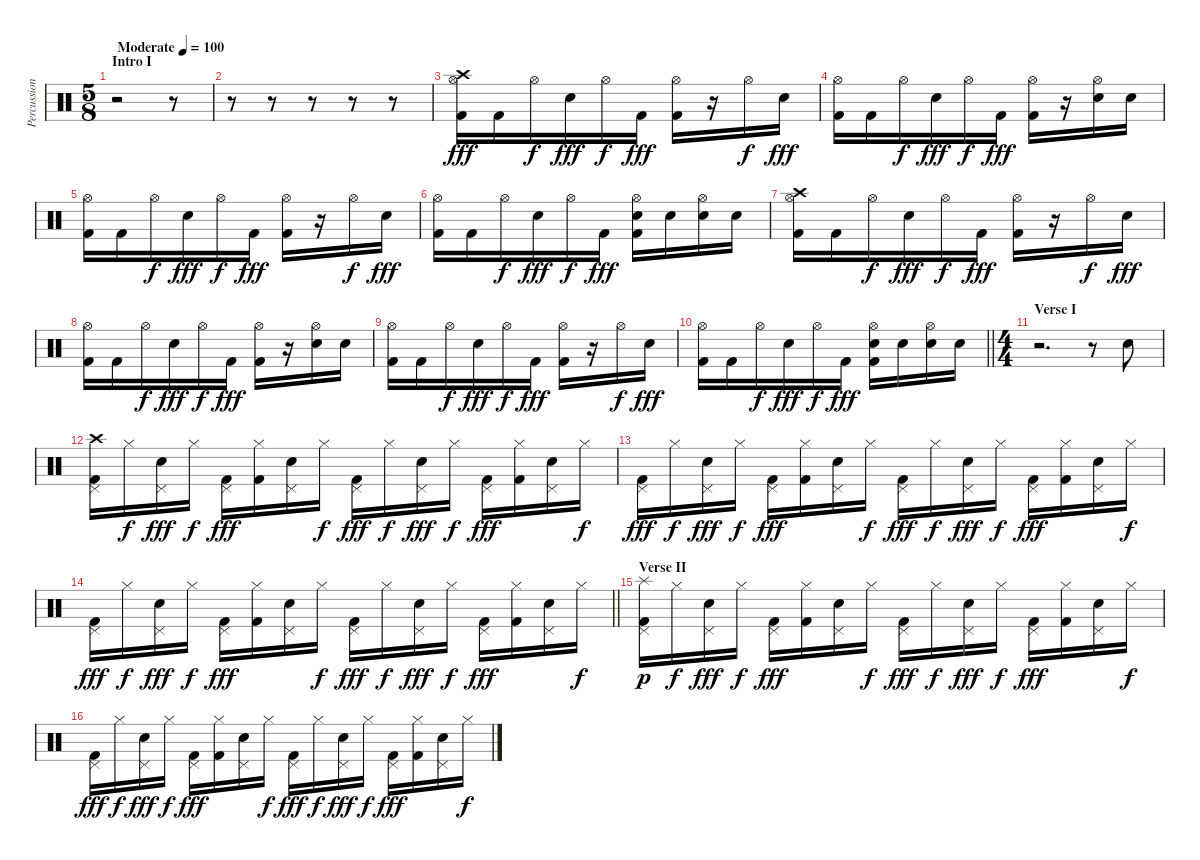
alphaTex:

\track ("Percussion" "Percussion") {instrument percussion}
\staff
\articulation defaults
\ts (5 8)
\section ("" "Intro I")
\tempo (100 "Moderate")
\clef neutral
\ks c
r.2{dy fff} r.8 |
r.8 r.8 r.8 r.8 r.8 |
("Kick (hit) 2" "Hi-Hat (open)" "Crash high (hit)").16 "Kick (hit) 2".16 "Hi-Hat (open)".16{dy f} "Electric Snare (hit)".16{dy fff} "Hi-Hat (open)".16{dy f} "Kick (hit) 2".16{dy fff} ("Kick (hit) 2" "Hi-Hat (open)").16 r.16 "Hi-Hat (open)".16{dy f} "Electric Snare (hit)".16{dy fff} |
("Kick (hit) 2" "Hi-Hat (open)").16 "Kick (hit) 2".16 "Hi-Hat (open)".16{dy f} "Electric Snare (hit)".16{dy fff} "Hi-Hat (open)".16{dy f} "Kick (hit) 2".16{dy fff} ("Kick (hit) 2" "Hi-Hat (open)").16 r.16 ("Electric Snare (hit)" "Hi-Hat (open)").16 "Electric Snare (hit)".16 |
("Kick (hit) 2" "Hi-Hat (open)").16 "Kick (hit) 2".16 "Hi-Hat (open)".16{dy f} "Electric Snare (hit)".16{dy fff} "Hi-Hat (open)".16{dy f} "Kick (hit) 2".16{dy fff} ("Kick (hit) 2" "Hi-Hat (open)").16 r.16 "Hi-Hat (open)".16{dy f} "Electric Snare (hit)".16{dy fff} |
("Kick (hit) 2" "Hi-Hat (open)").16 "Kick (hit) 2".16 "Hi-Hat (open)".16{dy f} "Electric Snare (hit)".16{dy fff} "Hi-Hat (open)".16{dy f} "Kick (hit) 2".16{dy fff} ("Kick (hit) 2" "Electric Snare (hit)" "Hi-Hat (open)").16 "Electric Snare (hit)".16 ("Electric Snare (hit)" "Hi-Hat (open)").16 "Electric Snare (hit)".16 |
("Kick (hit) 2" "Hi-Hat (open)" "Crash high (hit)").16 "Kick (hit) 2".16 "Hi-Hat (open)".16{dy f} "Electric Snare (hit)".16{dy fff} "Hi-Hat (open)".16{dy f} "Kick (hit) 2".16{dy fff} ("Kick (hit) 2" "Hi-Hat (open)").16 r.16 "Hi-Hat (open)".16{dy f} "Electric Snare (hit)".16{dy fff} |
("Kick (hit) 2" "Hi-Hat (open)").16 "Kick (hit) 2".16 "Hi-Hat (open)".16{dy f} "Electric Snare (hit)".16{dy fff} "Hi-Hat (open)".16{dy f} "Kick (hit) 2".16{dy fff} ("Kick (hit) 2" "Hi-Hat (open)").16 r.16 ("Electric Snare (hit)" "Hi-Hat (open)").16 "Electric Snare (hit)".16 |
("Kick (hit) 2" "Hi-Hat (open)").16 "Kick (hit) 2".16 "Hi-Hat (open)".16{dy f} "Electric Snare (hit)".16{dy fff} "Hi-Hat (open)".16{dy f} "Kick (hit) 2".16{dy fff} ("Kick (hit) 2" "Hi-Hat (open)").16 r.16 "Hi-Hat (open)".16{dy f} "Electric Snare (hit)".16{dy fff} |
\barLineRight lightlight
("Kick (hit) 2" "Hi-Hat (open)").16 "Kick (hit) 2".16 "Hi-Hat (open)".16{dy f} "Electric Snare (hit)".16{dy fff} "Hi-Hat (open)".16{dy f} "Kick (hit) 2".16{dy fff} ("Kick (hit) 2" "Electric Snare (hit)" "Hi-Hat (open)").16 "Electric Snare (hit)".16 ("Electric Snare (hit)" "Hi-Hat (open)").16 "Electric Snare (hit)".16 |
\ts (4 4)
\section ("" "Verse I")
r.2{d} r.8 "Electric Snare (hit)".8 |
("Kick (hit) 2" "Pedal Hi-Hat (hit)" "Crash high (hit)").16 "Hi-Hat (closed)".16{dy f} ("Electric Snare (hit)" "Pedal Hi-Hat (hit)").16{dy fff} "Hi-Hat (closed)".16{dy f} ("Kick (hit) 2" "Pedal Hi-Hat (hit)").16{dy fff} ("Kick (hit) 2" "Hi-Hat (closed)").16 ("Electric Snare (hit)" "Pedal Hi-Hat (hit)").16 "Hi-Hat (closed)".16{dy f} ("Kick (hit) 2" "Pedal Hi-Hat (hit)").16{dy fff} "Hi-Hat (closed)".16{dy f} ("Electric Snare (hit)" "Pedal Hi-Hat (hit)").16{dy fff} "Hi-Hat (closed)".16{dy f} ("Kick (hit) 2" "Pedal Hi-Hat (hit)").16{dy fff} ("Kick (hit) 2" "Hi-Hat (closed)").16 ("Electric Snare (hit)" "Pedal Hi-Hat (hit)").16 "Hi-Hat (closed)".16{dy f} |
("Kick (hit) 2" "Pedal Hi-Hat (hit)").16{dy fff} "Hi-Hat (closed)".16{dy f} ("Electric Snare (hit)" "Pedal Hi-Hat (hit)").16{dy fff} "Hi-Hat (closed)".16{dy f} ("Kick (hit) 2" "Pedal Hi-Hat (hit)").16{dy fff} ("Kick (hit) 2" "Hi-Hat (closed)").16 ("Electric Snare (hit)" "Pedal Hi-Hat (hit)").16 "Hi-Hat (closed)".16{dy f} ("Kick (hit) 2" "Pedal Hi-Hat (hit)").16{dy fff} "Hi-Hat (closed)".16{dy f} ("Electric Snare (hit)" "Pedal Hi-Hat (hit)").16{dy fff} "Hi-Hat (closed)".16{dy f} ("Kick (hit) 2" "Pedal Hi-Hat (hit)").16{dy fff} ("Kick (hit) 2" "Hi-Hat (closed)").16 ("Electric Snare (hit)" "Pedal Hi-Hat (hit)").16 "Hi-Hat (closed)".16{dy f} |
\barLineRight lightlight
("Kick (hit) 2" "Pedal Hi-Hat (hit)").16{dy fff} "Hi-Hat (closed)".16{dy f} ("Electric Snare (hit)" "Pedal Hi-Hat (hit)").16{dy fff} "Hi-Hat (closed)".16{dy f} ("Kick (hit) 2" "Pedal Hi-Hat (hit)").16{dy fff} ("Kick (hit) 2" "Hi-Hat (closed)").16 ("Electric Snare (hit)" "Pedal Hi-Hat (hit)").16 "Hi-Hat (closed)".16{dy f} ("Kick (hit) 2" "Pedal Hi-Hat (hit)").16{dy fff} "Hi-Hat (closed)".16{dy f} ("Electric Snare (hit)" "Pedal Hi-Hat (hit)").16{dy fff} "Hi-Hat (closed)".16{dy f} ("Kick (hit) 2" "Pedal Hi-Hat (hit)").16{dy fff} ("Kick (hit) 2" "Hi-Hat (closed)").16 ("Electric Snare (hit)" "Pedal Hi-Hat (hit)").16 "Hi-Hat (closed)".16{dy f} |
\section ("" "Verse II")
("Kick (hit) 2" "Pedal Hi-Hat (hit)" "Splash (hit)").16{dy p} "Hi-Hat (closed)".16{dy f} ("Electric Snare (hit)" "Pedal Hi-Hat (hit)").16{dy fff} "Hi-Hat (closed)".16{dy f} ("Kick (hit) 2" "Pedal Hi-Hat (hit)").16{dy fff} ("Kick (hit) 2" "Hi-Hat (closed)").16 ("Electric Snare (hit)" "Pedal Hi-Hat (hit)").16 "Hi-Hat (closed)".16{dy f} ("Kick (hit) 2" "Pedal Hi-Hat (hit)").16{dy fff} "Hi-Hat (closed)".16{dy f} ("Electric Snare (hit)" "Pedal Hi-Hat (hit)").16{dy fff} "Hi-Hat (closed)".16{dy f} ("Kick (hit) 2" "Pedal Hi-Hat (hit)").16{dy fff} ("Kick (hit) 2" "Hi-Hat (closed)").16 ("Electric Snare (hit)" "Pedal Hi-Hat (hit)").16 "Hi-Hat (closed)".16{dy f} |
("Kick (hit) 2" "Pedal Hi-Hat (hit)").16{dy fff} "Hi-Hat (closed)".16{dy f} ("Electric Snare (hit)" "Pedal Hi-Hat (hit)").16{dy fff} "Hi-Hat (closed)".16{dy f} ("Kick (hit) 2" "Pedal Hi-Hat (hit)").16{dy fff} ("Kick (hit) 2" "Hi-Hat (closed)").16 ("Electric Snare (hit)" "Pedal Hi-Hat (hit)").16 "Hi-Hat (closed)".16{dy f} ("Kick (hit) 2" "Pedal Hi-Hat (hit)").16{dy fff} "Hi-Hat (closed)".16{dy f} ("Electric Snare (hit)" "Pedal Hi-Hat (hit)").16{dy fff} "Hi-Hat (closed)".16{dy f} ("Kick (hit) 2" "Pedal Hi-Hat (hit)").16{dy fff} ("Kick (hit) 2" "Hi-Hat (closed)").16 ("Electric Snare (hit)" "Pedal Hi-Hat (hit)").16 "Hi-Hat (closed)".16{dy f}
